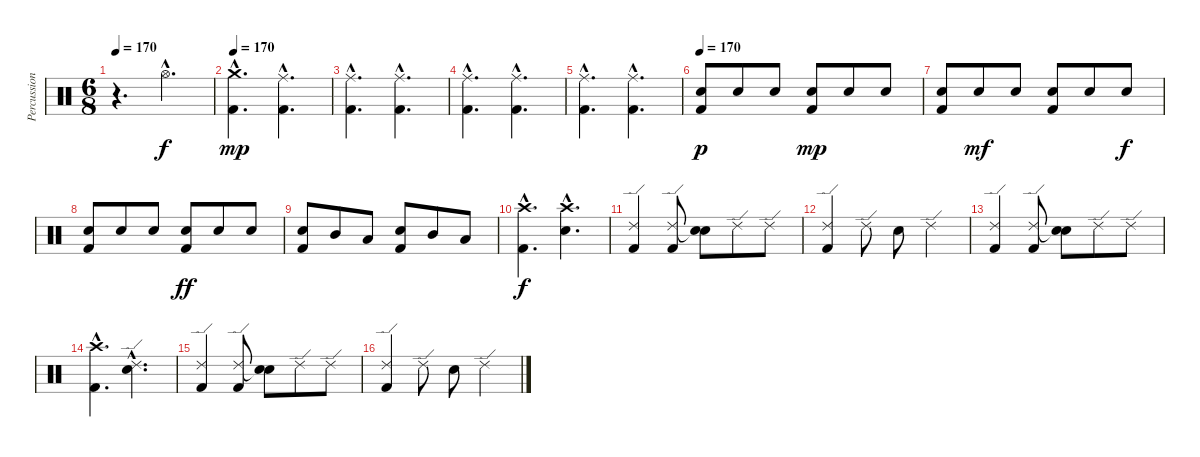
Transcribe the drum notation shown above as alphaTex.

\track ("Percussion" "Percussion") {instrument percussion}
\staff {score}
\articulation defaults
\ts (6 8)
\tempo 170
\clef neutral
\ks c
r.4{d dy f} "Hi-Hat (open)"{hac}.4{d} |
\tempo 170
("Crash medium (hit)"{hac} "Kick (hit) 2"{hac}).4{d dy mp} ("Ride (middle)"{hac} "Kick (hit) 2"{hac}).4{d} |
("Ride (middle)"{hac} "Kick (hit) 2"{hac}).4{d} ("Ride (middle)"{hac} "Kick (hit) 2"{hac}).4{d} |
("Ride (middle)"{hac} "Kick (hit) 2"{hac}).4{d} ("Ride (middle)"{hac} "Kick (hit) 2"{hac}).4{d} |
("Ride (middle)"{hac} "Kick (hit) 2"{hac}).4{d} ("Ride (middle)"{hac} "Kick (hit) 2"{hac}).4{d} |
\tempo 170
("Electric Snare (hit)" "Kick (hit) 2").8{dy p} "Electric Snare (hit)".8 "Electric Snare (hit)".8 ("Electric Snare (hit)" "Kick (hit) 2").8{dy mp} "Electric Snare (hit)".8 "Electric Snare (hit)".8 |
("Electric Snare (hit)" "Kick (hit) 2").8 "Electric Snare (hit)".8{dy mf} "Electric Snare (hit)".8 ("Electric Snare (hit)" "Kick (hit) 2").8 "Electric Snare (hit)".8 "Electric Snare (hit)".8{dy f} |
("Electric Snare (hit)" "Kick (hit) 2").8 "Electric Snare (hit)".8 "Electric Snare (hit)".8 ("Electric Snare (hit)" "Kick (hit) 2").8{dy ff} "Electric Snare (hit)".8 "Electric Snare (hit)".8 |
("Electric Snare (hit)" "Kick (hit) 2").8 "Mid Tom (hit)".8 "Low Tom (hit)".8 ("Electric Snare (hit)" "Kick (hit) 2").8 "Mid Tom (hit)".8 "Low Tom (hit)".8 |
("Crash high (hit)"{hac} "Kick (hit) 2"{hac}).4{d dy f} ("Crash high (hit)"{hac} "Electric Snare (hit)"{hac}).4{d} |
("Ride (edge) 2" "Kick (hit) 2").4 ("Ride (edge) 2" "Kick (hit) 2").8 ("Snare (hit)"{t} "Electric Snare (hit)").8 "Ride (edge) 2".8 "Ride (edge) 2".8 |
("Ride (edge) 2" "Kick (hit) 2").4 "Ride (edge) 2".8 "Electric Snare (hit)".8 "Ride (edge) 2".4 |
("Ride (edge) 2" "Kick (hit) 2").4 ("Ride (edge) 2" "Kick (hit) 2").8 ("Snare (hit)"{t} "Electric Snare (hit)").8 "Ride (edge) 2".8 "Ride (edge) 2".8 |
("Crash high (hit)"{hac} "Kick (hit) 2"{hac}).4{d} ("Ride (edge) 2"{hac} "Electric Snare (hit)"{hac}).4{d} |
("Ride (edge) 2" "Kick (hit) 2").4 ("Ride (edge) 2" "Kick (hit) 2").8 ("Snare (hit)"{t} "Electric Snare (hit)").8 "Ride (edge) 2".8 "Ride (edge) 2".8 |
("Ride (edge) 2" "Kick (hit) 2").4 "Ride (edge) 2".8 "Electric Snare (hit)".8 "Ride (edge) 2".4
